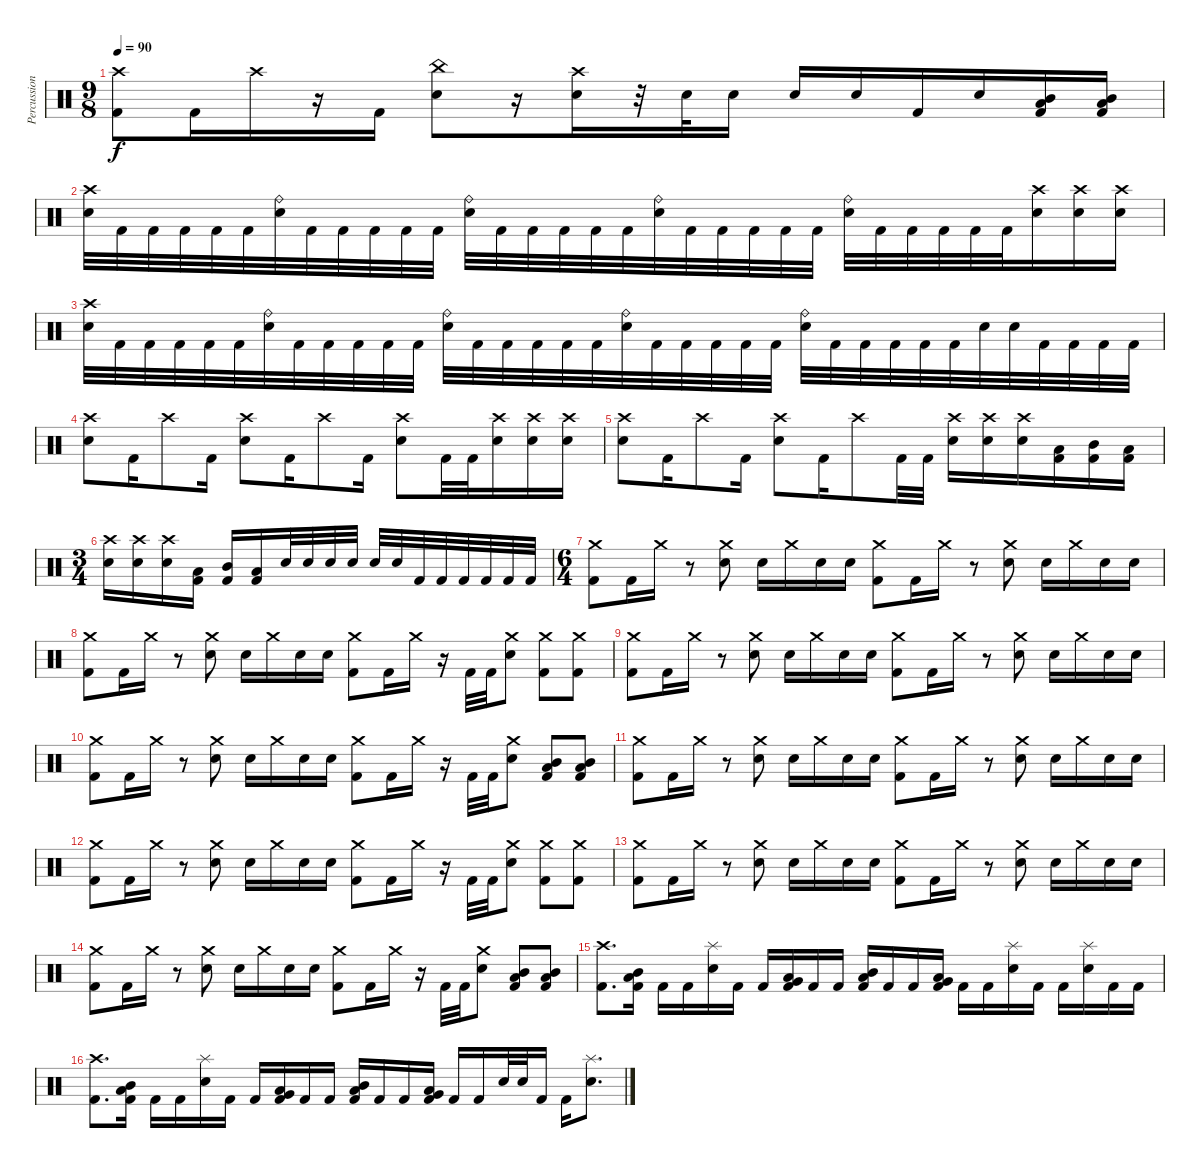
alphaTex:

\track ("Percussion" "Percussion") {instrument percussion}
\staff {score}
\articulation defaults
\ts (9 8)
\tempo 90
\clef neutral
\ks c
("Crash high (hit)" "Kick (hit) 2").8{dy f} "Kick (hit) 2".16 "Crash high (hit)".16 r.16 "Kick (hit) 2".16 ("China (hit)" "Snare (hit) 2").8 r.16 ("Crash high (hit)" "Snare (hit) 2").16 r.32 "Snare (hit) 2".32 "Snare (hit) 2".16 "Snare (hit) 2".16 "Snare (hit) 2".16 "Kick (hit) 2".16 "Snare (hit) 2".16 ("Mid Tom (hit)" "Low Tom (hit)" "Kick (hit) 2").16 ("Mid Tom (hit)" "Low Tom (hit)" "Kick (hit) 2").16 |
("Crash high (hit)" "Snare (hit) 2").32 "Kick (hit) 2".32 "Kick (hit) 2".32 "Kick (hit) 2".32 "Kick (hit) 2".32 "Kick (hit) 2".32 ("Ride (bell)" "Snare (hit) 2").32 "Kick (hit) 2".32 "Kick (hit) 2".32 "Kick (hit) 2".32 "Kick (hit) 2".32 "Kick (hit) 2".32 ("Ride (bell)" "Snare (hit) 2").32 "Kick (hit) 2".32 "Kick (hit) 2".32 "Kick (hit) 2".32 "Kick (hit) 2".32 "Kick (hit) 2".32 ("Ride (bell)" "Snare (hit) 2").32 "Kick (hit) 2".32 "Kick (hit) 2".32 "Kick (hit) 2".32 "Kick (hit) 2".32 "Kick (hit) 2".32 ("Ride (bell)" "Snare (hit) 2").32 "Kick (hit) 2".32 "Kick (hit) 2".32 "Kick (hit) 2".32 "Kick (hit) 2".32 "Kick (hit) 2".32 ("Crash high (hit)" "Snare (hit) 2").16 ("Crash high (hit)" "Snare (hit) 2").16 ("Crash high (hit)" "Snare (hit) 2").16 |
("Crash high (hit)" "Snare (hit) 2").32 "Kick (hit) 2".32 "Kick (hit) 2".32 "Kick (hit) 2".32 "Kick (hit) 2".32 "Kick (hit) 2".32 ("Ride (bell)" "Snare (hit) 2").32 "Kick (hit) 2".32 "Kick (hit) 2".32 "Kick (hit) 2".32 "Kick (hit) 2".32 "Kick (hit) 2".32 ("Ride (bell)" "Snare (hit) 2").32 "Kick (hit) 2".32 "Kick (hit) 2".32 "Kick (hit) 2".32 "Kick (hit) 2".32 "Kick (hit) 2".32 ("Ride (bell)" "Snare (hit) 2").32 "Kick (hit) 2".32 "Kick (hit) 2".32 "Kick (hit) 2".32 "Kick (hit) 2".32 "Kick (hit) 2".32 ("Ride (bell)" "Snare (hit) 2").32 "Kick (hit) 2".32 "Kick (hit) 2".32 "Kick (hit) 2".32 "Kick (hit) 2".32 "Kick (hit) 2".32 "Snare (hit) 2".32 "Snare (hit) 2".32 "Kick (hit) 2".32 "Kick (hit) 2".32 "Kick (hit) 2".32 "Kick (hit) 2".32 |
("Crash high (hit)" "Snare (hit) 2").8 "Kick (hit) 2".16 "Crash high (hit)".8 "Kick (hit) 2".16 ("Crash high (hit)" "Snare (hit) 2").8 "Kick (hit) 2".16 "Crash high (hit)".8 "Kick (hit) 2".16 ("Crash high (hit)" "Snare (hit) 2").8 "Kick (hit) 2".32 "Kick (hit) 2".32 ("Crash high (hit)" "Snare (hit) 2").16 ("Crash high (hit)" "Snare (hit) 2").16 ("Crash high (hit)" "Snare (hit) 2").16 |
("Crash high (hit)" "Snare (hit) 2").8 "Kick (hit) 2".16 "Crash high (hit)".8 "Kick (hit) 2".16 ("Crash high (hit)" "Snare (hit) 2").8 "Kick (hit) 2".16 "Crash high (hit)".8 "Kick (hit) 2".32 "Kick (hit) 2".32 ("Crash high (hit)" "Snare (hit) 2").16 ("Crash high (hit)" "Snare (hit) 2").16 ("Crash high (hit)" "Snare (hit) 2").16 ("Low Tom (hit)" "Kick (hit) 2").16 ("Mid Tom (hit)" "Kick (hit) 2").16 ("Low Tom (hit)" "Kick (hit) 2").16 |
\ts (3 4)
("Crash high (hit)" "Snare (hit) 2").16 ("Crash high (hit)" "Snare (hit) 2").16 ("Crash high (hit)" "Snare (hit) 2").16 ("Low Tom (hit)" "Kick (hit) 2").16 ("Mid Tom (hit)" "Kick (hit) 2").16 ("Low Tom (hit)" "Kick (hit) 2").16 "Snare (hit) 2".32 "Snare (hit) 2".32 "Snare (hit) 2".32 "Snare (hit) 2".32 "Snare (hit) 2".32 "Snare (hit) 2".32 "Kick (hit) 2".32 "Kick (hit) 2".32 "Kick (hit) 2".32 "Kick (hit) 2".32 "Kick (hit) 2".32 "Kick (hit) 2".32 |
\ts (6 4)
("Crash medium (hit)" "Kick (hit) 2").8 "Kick (hit) 2".16 "Crash medium (hit)".16 r.8 ("Crash medium (hit)" "Snare (hit) 2").8 "Snare (hit) 2".16 "Crash medium (hit)".16 "Snare (hit) 2".16 "Snare (hit) 2".16 ("Crash medium (hit)" "Kick (hit) 2").8 "Kick (hit) 2".16 "Crash medium (hit)".16 r.8 ("Crash medium (hit)" "Snare (hit) 2").8 "Snare (hit) 2".16 "Crash medium (hit)".16 "Snare (hit) 2".16 "Snare (hit) 2".16 |
("Crash medium (hit)" "Kick (hit) 2").8 "Kick (hit) 2".16 "Crash medium (hit)".16 r.8 ("Crash medium (hit)" "Snare (hit) 2").8 "Snare (hit) 2".16 "Crash medium (hit)".16 "Snare (hit) 2".16 "Snare (hit) 2".16 ("Crash medium (hit)" "Kick (hit) 2").8 "Kick (hit) 2".16 "Crash medium (hit)".16 r.16 "Kick (hit) 2".32 "Kick (hit) 2".32 ("Crash medium (hit)" "Snare (hit) 2").8 ("Crash medium (hit)" "Kick (hit) 2").8 ("Crash medium (hit)" "Kick (hit) 2").8 |
("Crash medium (hit)" "Kick (hit) 2").8 "Kick (hit) 2".16 "Crash medium (hit)".16 r.8 ("Crash medium (hit)" "Snare (hit) 2").8 "Snare (hit) 2".16 "Crash medium (hit)".16 "Snare (hit) 2".16 "Snare (hit) 2".16 ("Crash medium (hit)" "Kick (hit) 2").8 "Kick (hit) 2".16 "Crash medium (hit)".16 r.8 ("Crash medium (hit)" "Snare (hit) 2").8 "Snare (hit) 2".16 "Crash medium (hit)".16 "Snare (hit) 2".16 "Snare (hit) 2".16 |
("Crash medium (hit)" "Kick (hit) 2").8 "Kick (hit) 2".16 "Crash medium (hit)".16 r.8 ("Crash medium (hit)" "Snare (hit) 2").8 "Snare (hit) 2".16 "Crash medium (hit)".16 "Snare (hit) 2".16 "Snare (hit) 2".16 ("Crash medium (hit)" "Kick (hit) 2").8 "Kick (hit) 2".16 "Crash medium (hit)".16 r.16 "Kick (hit) 2".32 "Kick (hit) 2".32 ("Crash medium (hit)" "Snare (hit) 2").8 ("Mid Tom (hit)" "Low Tom (hit)" "Kick (hit) 2").8 ("Mid Tom (hit)" "Low Tom (hit)" "Kick (hit) 2").8 |
("Crash medium (hit)" "Kick (hit) 2").8 "Kick (hit) 2".16 "Crash medium (hit)".16 r.8 ("Crash medium (hit)" "Snare (hit) 2").8 "Snare (hit) 2".16 "Crash medium (hit)".16 "Snare (hit) 2".16 "Snare (hit) 2".16 ("Crash medium (hit)" "Kick (hit) 2").8 "Kick (hit) 2".16 "Crash medium (hit)".16 r.8 ("Crash medium (hit)" "Snare (hit) 2").8 "Snare (hit) 2".16 "Crash medium (hit)".16 "Snare (hit) 2".16 "Snare (hit) 2".16 |
("Crash medium (hit)" "Kick (hit) 2").8 "Kick (hit) 2".16 "Crash medium (hit)".16 r.8 ("Crash medium (hit)" "Snare (hit) 2").8 "Snare (hit) 2".16 "Crash medium (hit)".16 "Snare (hit) 2".16 "Snare (hit) 2".16 ("Crash medium (hit)" "Kick (hit) 2").8 "Kick (hit) 2".16 "Crash medium (hit)".16 r.16 "Kick (hit) 2".32 "Kick (hit) 2".32 ("Crash medium (hit)" "Snare (hit) 2").8 ("Crash medium (hit)" "Kick (hit) 2").8 ("Crash medium (hit)" "Kick (hit) 2").8 |
("Crash medium (hit)" "Kick (hit) 2").8 "Kick (hit) 2".16 "Crash medium (hit)".16 r.8 ("Crash medium (hit)" "Snare (hit) 2").8 "Snare (hit) 2".16 "Crash medium (hit)".16 "Snare (hit) 2".16 "Snare (hit) 2".16 ("Crash medium (hit)" "Kick (hit) 2").8 "Kick (hit) 2".16 "Crash medium (hit)".16 r.8 ("Crash medium (hit)" "Snare (hit) 2").8 "Snare (hit) 2".16 "Crash medium (hit)".16 "Snare (hit) 2".16 "Snare (hit) 2".16 |
("Crash medium (hit)" "Kick (hit) 2").8 "Kick (hit) 2".16 "Crash medium (hit)".16 r.8 ("Crash medium (hit)" "Snare (hit) 2").8 "Snare (hit) 2".16 "Crash medium (hit)".16 "Snare (hit) 2".16 "Snare (hit) 2".16 ("Crash medium (hit)" "Kick (hit) 2").8 "Kick (hit) 2".16 "Crash medium (hit)".16 r.16 "Kick (hit) 2".32 "Kick (hit) 2".32 ("Crash medium (hit)" "Snare (hit) 2").8 ("Mid Tom (hit)" "Low Tom (hit)" "Kick (hit) 2").8 ("Mid Tom (hit)" "Low Tom (hit)" "Kick (hit) 2").8 |
("Crash high (hit)" "Kick (hit) 2").8{d} ("Mid Tom (hit)" "Low Tom (hit)" "Kick (hit) 2").16 "Kick (hit) 2".16 "Kick (hit) 2".16 ("Splash (hit)" "Snare (hit) 2").16 "Kick (hit) 2".16 "Kick (hit) 2".16 ("Low Tom (hit)" "Very Low Tom (hit)" "Kick (hit) 2").16 "Kick (hit) 2".16 "Kick (hit) 2".16 ("Mid Tom (hit)" "Low Tom (hit)" "Kick (hit) 2").16 "Kick (hit) 2".16 "Kick (hit) 2".16 ("Low Tom (hit)" "Very Low Tom (hit)" "Kick (hit) 2").16 "Kick (hit) 2".16 "Kick (hit) 2".16 ("Splash (hit)" "Snare (hit) 2").16 "Kick (hit) 2".16 "Kick (hit) 2".16 ("Splash (hit)" "Snare (hit) 2").16 "Kick (hit) 2".16 "Kick (hit) 2".16 |
("Crash high (hit)" "Kick (hit) 2").8{d} ("Mid Tom (hit)" "Low Tom (hit)" "Kick (hit) 2").16 "Kick (hit) 2".16 "Kick (hit) 2".16 ("Splash (hit)" "Snare (hit) 2").16 "Kick (hit) 2".16 "Kick (hit) 2".16 ("Low Tom (hit)" "Very Low Tom (hit)" "Kick (hit) 2").16 "Kick (hit) 2".16 "Kick (hit) 2".16 ("Mid Tom (hit)" "Low Tom (hit)" "Kick (hit) 2").16 "Kick (hit) 2".16 "Kick (hit) 2".16 ("Low Tom (hit)" "Very Low Tom (hit)" "Kick (hit) 2").16 "Kick (hit) 2".16 "Kick (hit) 2".16 "Snare (hit) 2".32 "Snare (hit) 2".32 "Kick (hit) 2".16 "Kick (hit) 2".16 ("Splash (hit)" "Snare (hit) 2").8{d}
